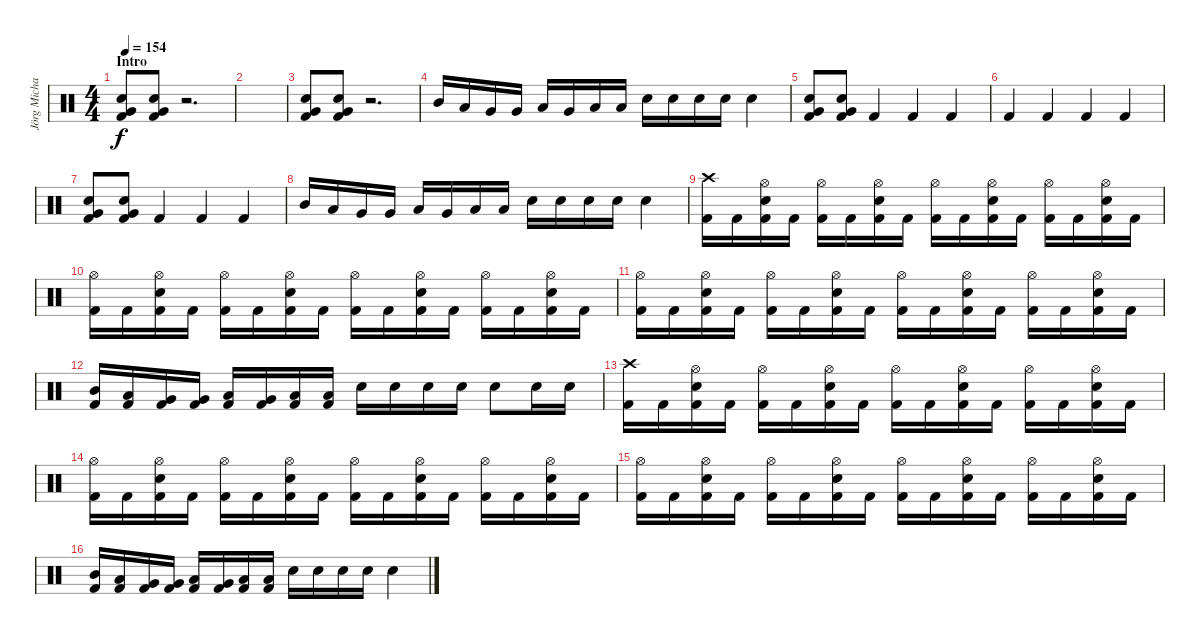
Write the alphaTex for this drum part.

\track ("Jörg Michael - Drums" "Jörg Micha") {instrument percussion}
\staff {score}
\articulation defaults
\ts (4 4)
\section ("" "Intro ")
\tempo 154
\clef neutral
\ks c
("Very Low Tom (hit)" "Electric Snare (hit)" "Kick (hit) 2").8{dy f} ("Very Low Tom (hit)" "Electric Snare (hit)" "Kick (hit) 2").8 r.2{d} |
|
("Very Low Tom (hit)" "Electric Snare (hit)" "Kick (hit) 2").8 ("Very Low Tom (hit)" "Electric Snare (hit)" "Kick (hit) 2").8 r.2{d} |
"Mid Tom (hit)".16 "Low Tom (hit)".16 "Very Low Tom (hit)".16 "Very Low Tom (hit)".16 "Low Tom (hit)".16 "Very Low Tom (hit)".16 "Low Floor Tom (hit)".16 "Low Floor Tom (hit)".16 "Electric Snare (hit)".16 "Electric Snare (hit)".16 "Electric Snare (hit)".16 "Electric Snare (hit)".16 "Electric Snare (hit)".4 |
("Very Low Tom (hit)" "Electric Snare (hit)" "Kick (hit) 2").8 ("Very Low Tom (hit)" "Electric Snare (hit)" "Kick (hit) 2").8 "Kick (hit) 2".4 "Kick (hit) 2".4 "Kick (hit) 2".4 |
"Kick (hit) 2".4 "Kick (hit) 2".4 "Kick (hit) 2".4 "Kick (hit) 2".4 |
("Very Low Tom (hit)" "Electric Snare (hit)" "Kick (hit) 2").8 ("Very Low Tom (hit)" "Electric Snare (hit)" "Kick (hit) 2").8 "Kick (hit) 2".4 "Kick (hit) 2".4 "Kick (hit) 2".4 |
"Mid Tom (hit)".16 "Low Tom (hit)".16 "Very Low Tom (hit)".16 "Very Low Tom (hit)".16 "Low Tom (hit)".16 "Very Low Tom (hit)".16 "Low Floor Tom (hit)".16 "Low Floor Tom (hit)".16 "Electric Snare (hit)".16 "Electric Snare (hit)".16 "Electric Snare (hit)".16 "Electric Snare (hit)".16 "Electric Snare (hit)".4 |
("Crash high (hit)" "Kick (hit) 2").16 "Kick (hit) 2".16 ("Hi-Hat (open)" "Electric Snare (hit)" "Kick (hit) 2").16 "Kick (hit) 2".16 ("Hi-Hat (open)" "Kick (hit) 2").16 "Kick (hit) 2".16 ("Hi-Hat (open)" "Electric Snare (hit)" "Kick (hit) 2").16 "Kick (hit) 2".16 ("Hi-Hat (open)" "Kick (hit) 2").16 "Kick (hit) 2".16 ("Hi-Hat (open)" "Electric Snare (hit)" "Kick (hit) 2").16 "Kick (hit) 2".16 ("Hi-Hat (open)" "Kick (hit) 2").16 "Kick (hit) 2".16 ("Hi-Hat (open)" "Electric Snare (hit)" "Kick (hit) 2").16 "Kick (hit) 2".16 |
("Hi-Hat (open)" "Kick (hit) 2").16 "Kick (hit) 2".16 ("Hi-Hat (open)" "Electric Snare (hit)" "Kick (hit) 2").16 "Kick (hit) 2".16 ("Hi-Hat (open)" "Kick (hit) 2").16 "Kick (hit) 2".16 ("Hi-Hat (open)" "Electric Snare (hit)" "Kick (hit) 2").16 "Kick (hit) 2".16 ("Hi-Hat (open)" "Kick (hit) 2").16 "Kick (hit) 2".16 ("Hi-Hat (open)" "Electric Snare (hit)" "Kick (hit) 2").16 "Kick (hit) 2".16 ("Hi-Hat (open)" "Kick (hit) 2").16 "Kick (hit) 2".16 ("Hi-Hat (open)" "Electric Snare (hit)" "Kick (hit) 2").16 "Kick (hit) 2".16 |
("Hi-Hat (open)" "Kick (hit) 2").16 "Kick (hit) 2".16 ("Hi-Hat (open)" "Electric Snare (hit)" "Kick (hit) 2").16 "Kick (hit) 2".16 ("Hi-Hat (open)" "Kick (hit) 2").16 "Kick (hit) 2".16 ("Hi-Hat (open)" "Electric Snare (hit)" "Kick (hit) 2").16 "Kick (hit) 2".16 ("Hi-Hat (open)" "Kick (hit) 2").16 "Kick (hit) 2".16 ("Hi-Hat (open)" "Electric Snare (hit)" "Kick (hit) 2").16 "Kick (hit) 2".16 ("Hi-Hat (open)" "Kick (hit) 2").16 "Kick (hit) 2".16 ("Hi-Hat (open)" "Electric Snare (hit)" "Kick (hit) 2").16 "Kick (hit) 2".16 |
("Mid Tom (hit)" "Kick (hit) 2").16 ("Low Tom (hit)" "Kick (hit) 2").16 ("Very Low Tom (hit)" "Kick (hit) 2").16 ("Very Low Tom (hit)" "Kick (hit) 2").16 ("Low Tom (hit)" "Kick (hit) 2").16 ("Very Low Tom (hit)" "Kick (hit) 2").16 ("Low Floor Tom (hit)" "Kick (hit) 2").16 ("Low Floor Tom (hit)" "Kick (hit) 2").16 "Electric Snare (hit)".16 "Electric Snare (hit)".16 "Electric Snare (hit)".16 "Electric Snare (hit)".16 "Electric Snare (hit)".8 "Electric Snare (hit)".16 "Electric Snare (hit)".16 |
("Crash high (hit)" "Kick (hit) 2").16 "Kick (hit) 2".16 ("Hi-Hat (open)" "Electric Snare (hit)" "Kick (hit) 2").16 "Kick (hit) 2".16 ("Hi-Hat (open)" "Kick (hit) 2").16 "Kick (hit) 2".16 ("Hi-Hat (open)" "Electric Snare (hit)" "Kick (hit) 2").16 "Kick (hit) 2".16 ("Hi-Hat (open)" "Kick (hit) 2").16 "Kick (hit) 2".16 ("Hi-Hat (open)" "Electric Snare (hit)" "Kick (hit) 2").16 "Kick (hit) 2".16 ("Hi-Hat (open)" "Kick (hit) 2").16 "Kick (hit) 2".16 ("Hi-Hat (open)" "Electric Snare (hit)" "Kick (hit) 2").16 "Kick (hit) 2".16 |
("Hi-Hat (open)" "Kick (hit) 2").16 "Kick (hit) 2".16 ("Hi-Hat (open)" "Electric Snare (hit)" "Kick (hit) 2").16 "Kick (hit) 2".16 ("Hi-Hat (open)" "Kick (hit) 2").16 "Kick (hit) 2".16 ("Hi-Hat (open)" "Electric Snare (hit)" "Kick (hit) 2").16 "Kick (hit) 2".16 ("Hi-Hat (open)" "Kick (hit) 2").16 "Kick (hit) 2".16 ("Hi-Hat (open)" "Electric Snare (hit)" "Kick (hit) 2").16 "Kick (hit) 2".16 ("Hi-Hat (open)" "Kick (hit) 2").16 "Kick (hit) 2".16 ("Hi-Hat (open)" "Electric Snare (hit)" "Kick (hit) 2").16 "Kick (hit) 2".16 |
("Hi-Hat (open)" "Kick (hit) 2").16 "Kick (hit) 2".16 ("Hi-Hat (open)" "Electric Snare (hit)" "Kick (hit) 2").16 "Kick (hit) 2".16 ("Hi-Hat (open)" "Kick (hit) 2").16 "Kick (hit) 2".16 ("Hi-Hat (open)" "Electric Snare (hit)" "Kick (hit) 2").16 "Kick (hit) 2".16 ("Hi-Hat (open)" "Kick (hit) 2").16 "Kick (hit) 2".16 ("Hi-Hat (open)" "Electric Snare (hit)" "Kick (hit) 2").16 "Kick (hit) 2".16 ("Hi-Hat (open)" "Kick (hit) 2").16 "Kick (hit) 2".16 ("Hi-Hat (open)" "Electric Snare (hit)" "Kick (hit) 2").16 "Kick (hit) 2".16 |
("Mid Tom (hit)" "Kick (hit) 2").16 ("Low Tom (hit)" "Kick (hit) 2").16 ("Very Low Tom (hit)" "Kick (hit) 2").16 ("Very Low Tom (hit)" "Kick (hit) 2").16 ("Low Tom (hit)" "Kick (hit) 2").16 ("Very Low Tom (hit)" "Kick (hit) 2").16 ("Low Floor Tom (hit)" "Kick (hit) 2").16 ("Low Floor Tom (hit)" "Kick (hit) 2").16 "Electric Snare (hit)".16 "Electric Snare (hit)".16 "Electric Snare (hit)".16 "Electric Snare (hit)".16 "Electric Snare (hit)".4
